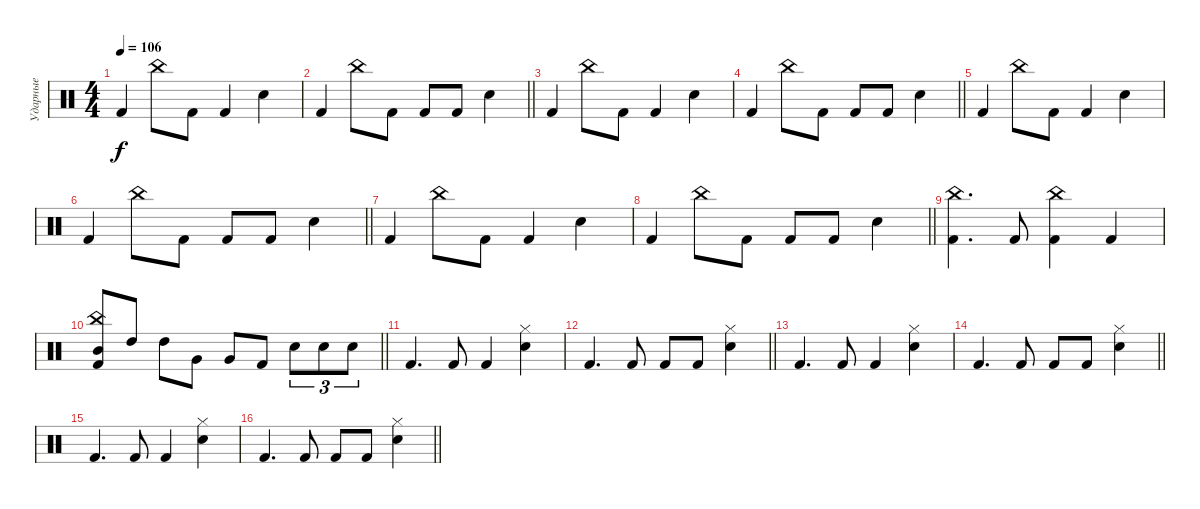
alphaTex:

\track ("Ударные" "Ударные") {instrument percussion}
\staff {score}
\articulation defaults
\ts (4 4)
\tempo 106
\clef neutral
\ks c "Kick (hit) 2".4{dy f} "China (hit)".8 "Kick (hit) 2".8 "Kick (hit) 2".4 "Snare (hit) 2".4
|
\barLineRight lightlight "Kick (hit) 2".4 "China (hit)".8 "Kick (hit) 2".8 "Kick (hit) 2".8 "Kick (hit) 2".8 "Snare (hit) 2".4
|
"Kick (hit) 2".4 "China (hit)".8 "Kick (hit) 2".8 "Kick (hit) 2".4 "Snare (hit) 2".4 |
\barLineRight lightlight "Kick (hit) 2".4 "China (hit)".8 "Kick (hit) 2".8 "Kick (hit) 2".8 "Kick (hit) 2".8 "Snare (hit) 2".4
|
"Kick (hit) 2".4 "China (hit)".8 "Kick (hit) 2".8 "Kick (hit) 2".4 "Snare (hit) 2".4 |
\barLineRight lightlight "Kick (hit) 2".4 "China (hit)".8 "Kick (hit) 2".8 "Kick (hit) 2".8 "Kick (hit) 2".8 "Snare (hit) 2".4
|
"Kick (hit) 2".4 "China (hit)".8 "Kick (hit) 2".8 "Kick (hit) 2".4 "Snare (hit) 2".4 |
\barLineRight lightlight "Kick (hit) 2".4 "China (hit)".8 "Kick (hit) 2".8 "Kick (hit) 2".8 "Kick (hit) 2".8 "Snare (hit) 2".4
|
("China (hit)" "Kick (hit) 2").4{d} "Kick (hit) 2".8 ("China (hit)" "Kick (hit) 2").4 "Kick (hit) 2".4 |
\barLineRight lightlight
("China (hit)" "Mid Tom (hit)" "Kick (hit) 2").8 "High Tom (hit)".8 "High Tom (hit)".8 "Very Low Tom (hit)".8 "Very Low Tom (hit)".8 "Kick (hit) 2".8 "Electric Snare (hit)".8{tu (3 2)} "Electric Snare (hit)".8{tu (3 2)} "Electric Snare (hit)".8{tu (3 2)} |
"Kick (hit) 2".4{d} "Kick (hit) 2".8 "Kick (hit) 2".4 ("Snare (hit) 2" "Hi-Hat (closed)").4 |
\barLineRight lightlight "Kick (hit) 2".4{d} "Kick (hit) 2".8 "Kick (hit) 2".8 "Kick (hit) 2".8
("Snare (hit) 2" "Hi-Hat (closed)").4 |
"Kick (hit) 2".4{d} "Kick (hit) 2".8 "Kick (hit) 2".4 ("Snare (hit) 2" "Hi-Hat (closed)").4 |
\barLineRight lightlight "Kick (hit) 2".4{d} "Kick (hit) 2".8 "Kick (hit) 2".8 "Kick (hit) 2".8
("Snare (hit) 2" "Hi-Hat (closed)").4 |
"Kick (hit) 2".4{d} "Kick (hit) 2".8 "Kick (hit) 2".4 ("Snare (hit) 2" "Hi-Hat (closed)").4 |
\barLineRight lightlight "Kick (hit) 2".4{d} "Kick (hit) 2".8 "Kick (hit) 2".8 "Kick (hit) 2".8
("Snare (hit) 2" "Hi-Hat (closed)").4
